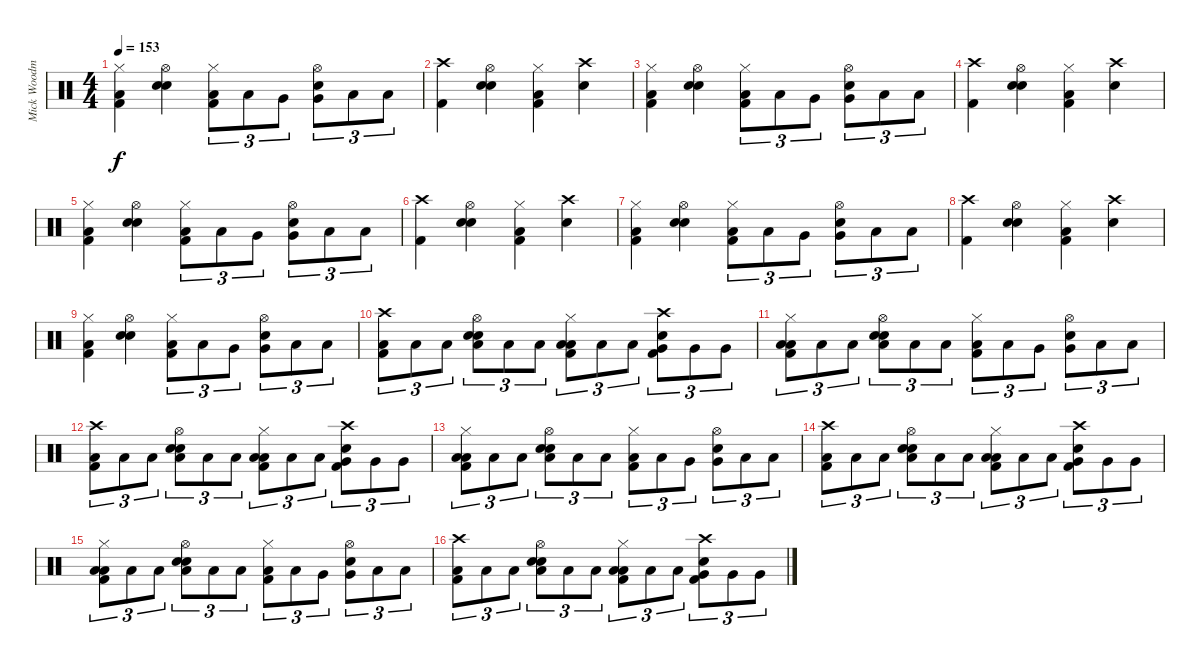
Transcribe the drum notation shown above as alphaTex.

\track ("Mick Woodmansey - Drums" "Mick Woodm") {instrument percussion}
\staff {score}
\articulation defaults
\ts (4 4)
\tempo 153
\clef neutral
\ks c
("Hi-Hat (closed)" "Low Floor Tom (hit)" "Kick (hit) 2").4{dy f} ("Hi-Hat (open)" "Electric Snare (hit)" "Electric Snare (hit)").4 ("Hi-Hat (closed)" "Low Tom (hit)" "Kick (hit) 2").8{tu (3 2)} "Low Tom (hit)".8{tu (3 2)} "Very Low Tom (hit)".8{tu (3 2)} ("Hi-Hat (open)" "Electric Snare (hit)" "Very Low Tom (hit)").8{tu (3 2)} "Low Floor Tom (hit)".8{tu (3 2)} "Low Floor Tom (hit)".8{tu (3 2)} |
("Crash high (hit)" "Kick (hit) 2").4 ("Hi-Hat (open)" "Electric Snare (hit)" "Electric Snare (hit)").4 ("Hi-Hat (closed)" "Low Floor Tom (hit)" "Kick (hit) 2").4 ("Crash high (hit)" "Electric Snare (hit)").4 |
("Hi-Hat (closed)" "Low Floor Tom (hit)" "Kick (hit) 2").4 ("Hi-Hat (open)" "Electric Snare (hit)" "Electric Snare (hit)").4 ("Hi-Hat (closed)" "Low Tom (hit)" "Kick (hit) 2").8{tu (3 2)} "Low Tom (hit)".8{tu (3 2)} "Very Low Tom (hit)".8{tu (3 2)} ("Hi-Hat (open)" "Electric Snare (hit)" "Very Low Tom (hit)").8{tu (3 2)} "Low Floor Tom (hit)".8{tu (3 2)} "Low Floor Tom (hit)".8{tu (3 2)} |
("Crash high (hit)" "Kick (hit) 2").4 ("Hi-Hat (open)" "Electric Snare (hit)" "Electric Snare (hit)").4 ("Hi-Hat (closed)" "Low Floor Tom (hit)" "Kick (hit) 2").4 ("Crash high (hit)" "Electric Snare (hit)").4 |
("Hi-Hat (closed)" "Low Floor Tom (hit)" "Kick (hit) 2").4 ("Hi-Hat (open)" "Electric Snare (hit)" "Electric Snare (hit)").4 ("Hi-Hat (closed)" "Low Tom (hit)" "Kick (hit) 2").8{tu (3 2)} "Low Tom (hit)".8{tu (3 2)} "Very Low Tom (hit)".8{tu (3 2)} ("Hi-Hat (open)" "Electric Snare (hit)" "Very Low Tom (hit)").8{tu (3 2)} "Low Floor Tom (hit)".8{tu (3 2)} "Low Floor Tom (hit)".8{tu (3 2)} |
("Crash high (hit)" "Kick (hit) 2").4 ("Hi-Hat (open)" "Electric Snare (hit)" "Electric Snare (hit)").4 ("Hi-Hat (closed)" "Low Floor Tom (hit)" "Kick (hit) 2").4 ("Crash high (hit)" "Electric Snare (hit)").4 |
("Hi-Hat (closed)" "Low Floor Tom (hit)" "Kick (hit) 2").4 ("Hi-Hat (open)" "Electric Snare (hit)" "Electric Snare (hit)").4 ("Hi-Hat (closed)" "Low Tom (hit)" "Kick (hit) 2").8{tu (3 2)} "Low Tom (hit)".8{tu (3 2)} "Very Low Tom (hit)".8{tu (3 2)} ("Hi-Hat (open)" "Electric Snare (hit)" "Very Low Tom (hit)").8{tu (3 2)} "Low Floor Tom (hit)".8{tu (3 2)} "Low Floor Tom (hit)".8{tu (3 2)} |
("Crash high (hit)" "Kick (hit) 2").4 ("Hi-Hat (open)" "Electric Snare (hit)" "Electric Snare (hit)").4 ("Hi-Hat (closed)" "Low Floor Tom (hit)" "Kick (hit) 2").4 ("Crash high (hit)" "Electric Snare (hit)").4 |
("Hi-Hat (closed)" "Low Floor Tom (hit)" "Kick (hit) 2").4 ("Hi-Hat (open)" "Electric Snare (hit)" "Electric Snare (hit)").4 ("Hi-Hat (closed)" "Low Tom (hit)" "Kick (hit) 2").8{tu (3 2)} "Low Tom (hit)".8{tu (3 2)} "Very Low Tom (hit)".8{tu (3 2)} ("Hi-Hat (open)" "Electric Snare (hit)" "Very Low Tom (hit)").8{tu (3 2)} "Low Floor Tom (hit)".8{tu (3 2)} "Low Floor Tom (hit)".8{tu (3 2)} |
("Crash high (hit)" "Low Floor Tom (hit)" "Kick (hit) 2").8{tu (3 2)} "Low Floor Tom (hit)".8{tu (3 2)} "Low Floor Tom (hit)".8{tu (3 2)} ("Hi-Hat (open)" "Electric Snare (hit)" "Electric Snare (hit)" "Low Floor Tom (hit)").8{tu (3 2)} "Low Floor Tom (hit)".8{tu (3 2)} "Low Floor Tom (hit)".8{tu (3 2)} ("Hi-Hat (closed)" "Low Floor Tom (hit)" "Low Tom (hit)" "Kick (hit) 2").8{tu (3 2)} "Low Tom (hit)".8{tu (3 2)} "Low Tom (hit)".8{tu (3 2)} ("Crash high (hit)" "Electric Snare (hit)" "Very Low Tom (hit)" "Kick (hit) 2").8{tu (3 2)} "Very Low Tom (hit)".8{tu (3 2)} "Very Low Tom (hit)".8{tu (3 2)} |
("Hi-Hat (closed)" "Low Floor Tom (hit)" "Low Floor Tom (hit)" "Kick (hit) 2").8{tu (3 2)} "Low Floor Tom (hit)".8{tu (3 2)} "Low Floor Tom (hit)".8{tu (3 2)} ("Hi-Hat (open)" "Electric Snare (hit)" "Electric Snare (hit)" "Low Floor Tom (hit)").8{tu (3 2)} "Low Floor Tom (hit)".8{tu (3 2)} "Low Floor Tom (hit)".8{tu (3 2)} ("Hi-Hat (closed)" "Low Tom (hit)" "Kick (hit) 2").8{tu (3 2)} "Low Tom (hit)".8{tu (3 2)} "Very Low Tom (hit)".8{tu (3 2)} ("Hi-Hat (open)" "Electric Snare (hit)" "Very Low Tom (hit)").8{tu (3 2)} "Low Floor Tom (hit)".8{tu (3 2)} "Low Floor Tom (hit)".8{tu (3 2)} |
("Crash high (hit)" "Low Floor Tom (hit)" "Kick (hit) 2").8{tu (3 2)} "Low Floor Tom (hit)".8{tu (3 2)} "Low Floor Tom (hit)".8{tu (3 2)} ("Hi-Hat (open)" "Electric Snare (hit)" "Electric Snare (hit)" "Low Floor Tom (hit)").8{tu (3 2)} "Low Floor Tom (hit)".8{tu (3 2)} "Low Floor Tom (hit)".8{tu (3 2)} ("Hi-Hat (closed)" "Low Floor Tom (hit)" "Low Tom (hit)" "Kick (hit) 2").8{tu (3 2)} "Low Tom (hit)".8{tu (3 2)} "Low Tom (hit)".8{tu (3 2)} ("Crash high (hit)" "Electric Snare (hit)" "Very Low Tom (hit)" "Kick (hit) 2").8{tu (3 2)} "Very Low Tom (hit)".8{tu (3 2)} "Very Low Tom (hit)".8{tu (3 2)} |
("Hi-Hat (closed)" "Low Floor Tom (hit)" "Low Floor Tom (hit)" "Kick (hit) 2").8{tu (3 2)} "Low Floor Tom (hit)".8{tu (3 2)} "Low Floor Tom (hit)".8{tu (3 2)} ("Hi-Hat (open)" "Electric Snare (hit)" "Electric Snare (hit)" "Low Floor Tom (hit)").8{tu (3 2)} "Low Floor Tom (hit)".8{tu (3 2)} "Low Floor Tom (hit)".8{tu (3 2)} ("Hi-Hat (closed)" "Low Tom (hit)" "Kick (hit) 2").8{tu (3 2)} "Low Tom (hit)".8{tu (3 2)} "Very Low Tom (hit)".8{tu (3 2)} ("Hi-Hat (open)" "Electric Snare (hit)" "Very Low Tom (hit)").8{tu (3 2)} "Low Floor Tom (hit)".8{tu (3 2)} "Low Floor Tom (hit)".8{tu (3 2)} |
("Crash high (hit)" "Low Floor Tom (hit)" "Kick (hit) 2").8{tu (3 2)} "Low Floor Tom (hit)".8{tu (3 2)} "Low Floor Tom (hit)".8{tu (3 2)} ("Hi-Hat (open)" "Electric Snare (hit)" "Electric Snare (hit)" "Low Floor Tom (hit)").8{tu (3 2)} "Low Floor Tom (hit)".8{tu (3 2)} "Low Floor Tom (hit)".8{tu (3 2)} ("Hi-Hat (closed)" "Low Floor Tom (hit)" "Low Tom (hit)" "Kick (hit) 2").8{tu (3 2)} "Low Tom (hit)".8{tu (3 2)} "Low Tom (hit)".8{tu (3 2)} ("Crash high (hit)" "Electric Snare (hit)" "Very Low Tom (hit)" "Kick (hit) 2").8{tu (3 2)} "Very Low Tom (hit)".8{tu (3 2)} "Very Low Tom (hit)".8{tu (3 2)} |
("Hi-Hat (closed)" "Low Floor Tom (hit)" "Low Floor Tom (hit)" "Kick (hit) 2").8{tu (3 2)} "Low Floor Tom (hit)".8{tu (3 2)} "Low Floor Tom (hit)".8{tu (3 2)} ("Hi-Hat (open)" "Electric Snare (hit)" "Electric Snare (hit)" "Low Floor Tom (hit)").8{tu (3 2)} "Low Floor Tom (hit)".8{tu (3 2)} "Low Floor Tom (hit)".8{tu (3 2)} ("Hi-Hat (closed)" "Low Tom (hit)" "Kick (hit) 2").8{tu (3 2)} "Low Tom (hit)".8{tu (3 2)} "Very Low Tom (hit)".8{tu (3 2)} ("Hi-Hat (open)" "Electric Snare (hit)" "Very Low Tom (hit)").8{tu (3 2)} "Low Floor Tom (hit)".8{tu (3 2)} "Low Floor Tom (hit)".8{tu (3 2)} |
("Crash high (hit)" "Low Floor Tom (hit)" "Kick (hit) 2").8{tu (3 2)} "Low Floor Tom (hit)".8{tu (3 2)} "Low Floor Tom (hit)".8{tu (3 2)} ("Hi-Hat (open)" "Electric Snare (hit)" "Electric Snare (hit)" "Low Floor Tom (hit)").8{tu (3 2)} "Low Floor Tom (hit)".8{tu (3 2)} "Low Floor Tom (hit)".8{tu (3 2)} ("Hi-Hat (closed)" "Low Floor Tom (hit)" "Low Tom (hit)" "Kick (hit) 2").8{tu (3 2)} "Low Tom (hit)".8{tu (3 2)} "Low Tom (hit)".8{tu (3 2)} ("Crash high (hit)" "Electric Snare (hit)" "Very Low Tom (hit)" "Kick (hit) 2").8{tu (3 2)} "Very Low Tom (hit)".8{tu (3 2)} "Very Low Tom (hit)".8{tu (3 2)}
